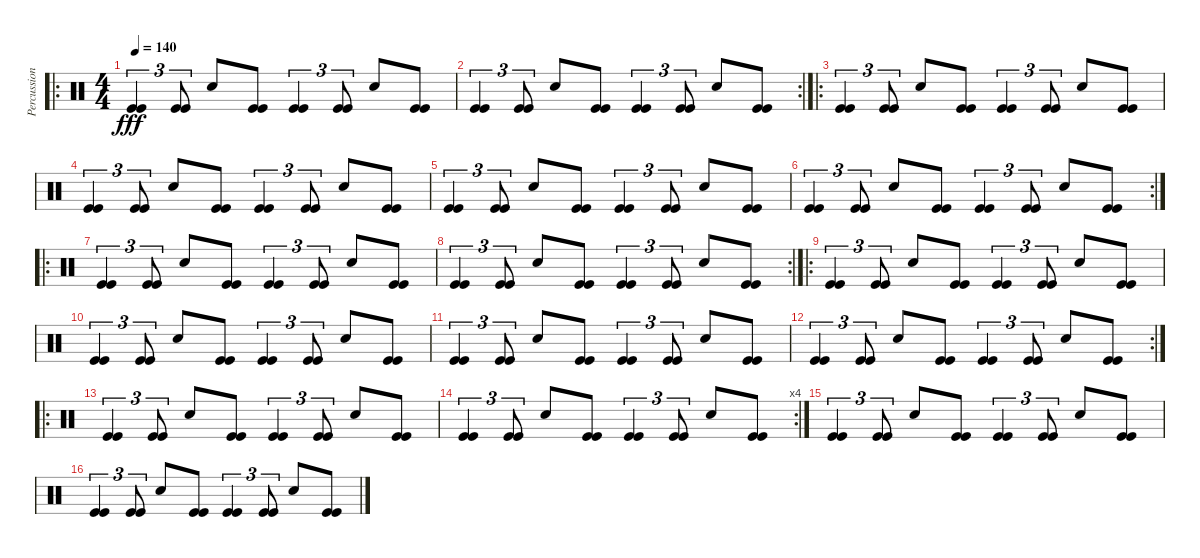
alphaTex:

\track ("Percussions" "Percussion") {instrument percussion}
\staff {score}
\articulation defaults
\ro
\ts (4 4)
\tempo 140
\clef neutral
\ks c
("Kick (hit)" "Kick (hit)").4{tu (3 2) dy fff} ("Kick (hit)" "Kick (hit)").8{tu (3 2)} "Snare (hit) 2".8 ("Kick (hit)" "Kick (hit)").8 ("Kick (hit)" "Kick (hit)").4{tu (3 2)} ("Kick (hit)" "Kick (hit)").8{tu (3 2)} "Snare (hit) 2".8 ("Kick (hit)" "Kick (hit)").8 |
\rc 2
("Kick (hit)" "Kick (hit)").4{tu (3 2)} ("Kick (hit)" "Kick (hit)").8{tu (3 2)} "Snare (hit) 2".8 ("Kick (hit)" "Kick (hit)").8 ("Kick (hit)" "Kick (hit)").4{tu (3 2)} ("Kick (hit)" "Kick (hit)").8{tu (3 2)} "Snare (hit) 2".8 ("Kick (hit)" "Kick (hit)").8 |
\ro
("Kick (hit)" "Kick (hit)").4{tu (3 2)} ("Kick (hit)" "Kick (hit)").8{tu (3 2)} "Snare (hit) 2".8 ("Kick (hit)" "Kick (hit)").8 ("Kick (hit)" "Kick (hit)").4{tu (3 2)} ("Kick (hit)" "Kick (hit)").8{tu (3 2)} "Snare (hit) 2".8 ("Kick (hit)" "Kick (hit)").8 |
("Kick (hit)" "Kick (hit)").4{tu (3 2)} ("Kick (hit)" "Kick (hit)").8{tu (3 2)} "Snare (hit) 2".8 ("Kick (hit)" "Kick (hit)").8 ("Kick (hit)" "Kick (hit)").4{tu (3 2)} ("Kick (hit)" "Kick (hit)").8{tu (3 2)} "Snare (hit) 2".8 ("Kick (hit)" "Kick (hit)").8 |
("Kick (hit)" "Kick (hit)").4{tu (3 2)} ("Kick (hit)" "Kick (hit)").8{tu (3 2)} "Snare (hit) 2".8 ("Kick (hit)" "Kick (hit)").8 ("Kick (hit)" "Kick (hit)").4{tu (3 2)} ("Kick (hit)" "Kick (hit)").8{tu (3 2)} "Snare (hit) 2".8 ("Kick (hit)" "Kick (hit)").8 |
\rc 2
("Kick (hit)" "Kick (hit)").4{tu (3 2)} ("Kick (hit)" "Kick (hit)").8{tu (3 2)} "Snare (hit) 2".8 ("Kick (hit)" "Kick (hit)").8 ("Kick (hit)" "Kick (hit)").4{tu (3 2)} ("Kick (hit)" "Kick (hit)").8{tu (3 2)} "Snare (hit) 2".8 ("Kick (hit)" "Kick (hit)").8 |
\ro
("Kick (hit)" "Kick (hit)").4{tu (3 2)} ("Kick (hit)" "Kick (hit)").8{tu (3 2)} "Snare (hit) 2".8 ("Kick (hit)" "Kick (hit)").8 ("Kick (hit)" "Kick (hit)").4{tu (3 2)} ("Kick (hit)" "Kick (hit)").8{tu (3 2)} "Snare (hit) 2".8 ("Kick (hit)" "Kick (hit)").8 |
\rc 2
("Kick (hit)" "Kick (hit)").4{tu (3 2)} ("Kick (hit)" "Kick (hit)").8{tu (3 2)} "Snare (hit) 2".8 ("Kick (hit)" "Kick (hit)").8 ("Kick (hit)" "Kick (hit)").4{tu (3 2)} ("Kick (hit)" "Kick (hit)").8{tu (3 2)} "Snare (hit) 2".8 ("Kick (hit)" "Kick (hit)").8 |
\ro
("Kick (hit)" "Kick (hit)").4{tu (3 2)} ("Kick (hit)" "Kick (hit)").8{tu (3 2)} "Snare (hit) 2".8 ("Kick (hit)" "Kick (hit)").8 ("Kick (hit)" "Kick (hit)").4{tu (3 2)} ("Kick (hit)" "Kick (hit)").8{tu (3 2)} "Snare (hit) 2".8 ("Kick (hit)" "Kick (hit)").8 |
("Kick (hit)" "Kick (hit)").4{tu (3 2)} ("Kick (hit)" "Kick (hit)").8{tu (3 2)} "Snare (hit) 2".8 ("Kick (hit)" "Kick (hit)").8 ("Kick (hit)" "Kick (hit)").4{tu (3 2)} ("Kick (hit)" "Kick (hit)").8{tu (3 2)} "Snare (hit) 2".8 ("Kick (hit)" "Kick (hit)").8 |
("Kick (hit)" "Kick (hit)").4{tu (3 2)} ("Kick (hit)" "Kick (hit)").8{tu (3 2)} "Snare (hit) 2".8 ("Kick (hit)" "Kick (hit)").8 ("Kick (hit)" "Kick (hit)").4{tu (3 2)} ("Kick (hit)" "Kick (hit)").8{tu (3 2)} "Snare (hit) 2".8 ("Kick (hit)" "Kick (hit)").8 |
\rc 2
("Kick (hit)" "Kick (hit)").4{tu (3 2)} ("Kick (hit)" "Kick (hit)").8{tu (3 2)} "Snare (hit) 2".8 ("Kick (hit)" "Kick (hit)").8 ("Kick (hit)" "Kick (hit)").4{tu (3 2)} ("Kick (hit)" "Kick (hit)").8{tu (3 2)} "Snare (hit) 2".8 ("Kick (hit)" "Kick (hit)").8 |
\ro
("Kick (hit)" "Kick (hit)").4{tu (3 2)} ("Kick (hit)" "Kick (hit)").8{tu (3 2)} "Snare (hit) 2".8 ("Kick (hit)" "Kick (hit)").8 ("Kick (hit)" "Kick (hit)").4{tu (3 2)} ("Kick (hit)" "Kick (hit)").8{tu (3 2)} "Snare (hit) 2".8 ("Kick (hit)" "Kick (hit)").8 |
\rc 4
("Kick (hit)" "Kick (hit)").4{tu (3 2)} ("Kick (hit)" "Kick (hit)").8{tu (3 2)} "Snare (hit) 2".8 ("Kick (hit)" "Kick (hit)").8 ("Kick (hit)" "Kick (hit)").4{tu (3 2)} ("Kick (hit)" "Kick (hit)").8{tu (3 2)} "Snare (hit) 2".8 ("Kick (hit)" "Kick (hit)").8 |
("Kick (hit)" "Kick (hit)").4{tu (3 2)} ("Kick (hit)" "Kick (hit)").8{tu (3 2)} "Snare (hit) 2".8 ("Kick (hit)" "Kick (hit)").8 ("Kick (hit)" "Kick (hit)").4{tu (3 2)} ("Kick (hit)" "Kick (hit)").8{tu (3 2)} "Snare (hit) 2".8 ("Kick (hit)" "Kick (hit)").8 |
("Kick (hit)" "Kick (hit)").4{tu (3 2)} ("Kick (hit)" "Kick (hit)").8{tu (3 2)} "Snare (hit) 2".8 ("Kick (hit)" "Kick (hit)").8 ("Kick (hit)" "Kick (hit)").4{tu (3 2)} ("Kick (hit)" "Kick (hit)").8{tu (3 2)} "Snare (hit) 2".8 ("Kick (hit)" "Kick (hit)").8
